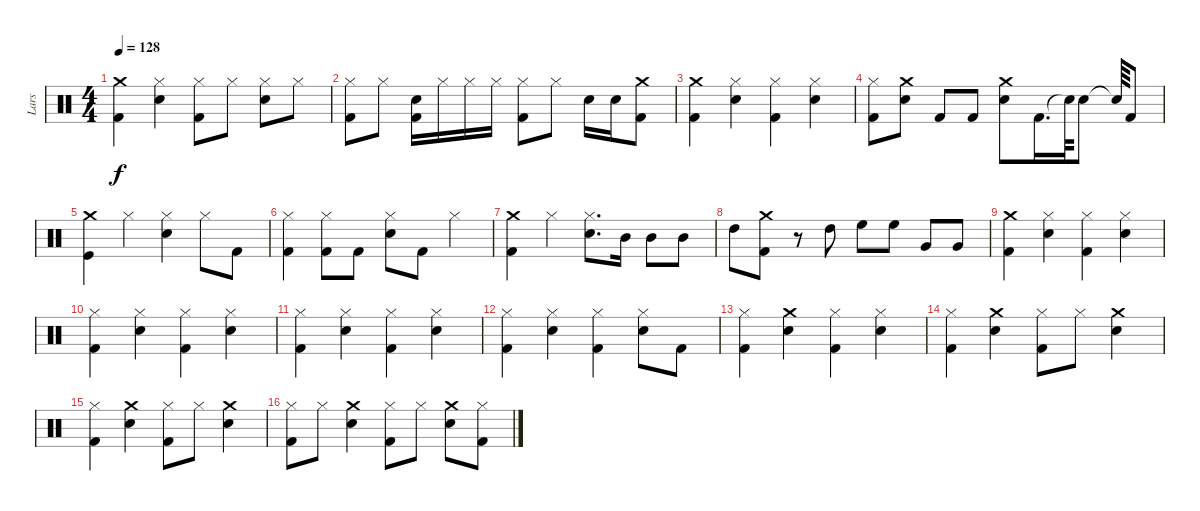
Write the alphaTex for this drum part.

\track ("Lars" "Lars") {instrument percussion}
\staff {score}
\articulation defaults
\ts (4 4)
\tempo 128
\clef neutral
\ks c
("Kick (hit) 2" "Crash medium (hit)").4{dy f} ("Snare (hit) 2" "Hi-Hat (closed)").4 ("Kick (hit) 2" "Hi-Hat (closed)").8 "Hi-Hat (closed)".8 ("Snare (hit) 2" "Hi-Hat (closed)").8 "Hi-Hat (closed)".8 |
("Hi-Hat (closed)" "Kick (hit) 2").8 "Hi-Hat (closed)".8 ("Snare (hit) 2" "Kick (hit) 2").16 "Hi-Hat (closed)".16 "Hi-Hat (closed)".16 "Hi-Hat (closed)".16 ("Hi-Hat (closed)" "Kick (hit) 2").8 "Hi-Hat (closed)".8 "Snare (hit) 2".16 "Snare (hit) 2".16 ("Crash medium (hit)" "Kick (hit) 2").8 |
("Kick (hit) 2" "Crash medium (hit)").4 ("Hi-Hat (closed)" "Snare (hit) 2").4 ("Hi-Hat (closed)" "Kick (hit) 2").4 ("Snare (hit) 2" "Hi-Hat (closed)").4 |
("Hi-Hat (closed)" "Kick (hit) 2").8 ("Snare (hit) 2" "Crash medium (hit)").8 "Kick (hit) 2".8 "Kick (hit) 2".8 ("Crash medium (hit)" "Snare (hit) 2").8 "Kick (hit) 2".16{d} "Snare (hit)"{t}.64 "Snare (hit) 2".8 "Snare (hit)"{t}.64 "Kick (hit) 2".8 |
("Kick (hit)" "Crash medium (hit)").4 "Hi-Hat (closed)".4 ("Snare (hit) 2" "Hi-Hat (closed)").4 "Hi-Hat (closed)".8 "Kick (hit) 2".8 |
("Hi-Hat (closed)" "Kick (hit) 2").4 ("Hi-Hat (closed)" "Kick (hit) 2").8 "Kick (hit) 2".8 ("Snare (hit) 2" "Hi-Hat (closed)").8 "Kick (hit) 2".8 "Hi-Hat (closed)".4 |
("Kick (hit) 2" "Crash medium (hit)").4 "Hi-Hat (closed)".4 ("Snare (hit) 2" "Hi-Hat (closed)").8{d} "Mid Tom (hit)".16 "Mid Tom (hit)".8 "Mid Tom (hit)".8 |
"High Tom (hit)".8 ("Crash medium (hit)" "Kick (hit) 2").8 r.8 "High Tom (hit)".8 "High Floor Tom (hit)".8 "High Floor Tom (hit)".8 "Very Low Tom (hit)".8 "Very Low Tom (hit)".8 |
("Kick (hit) 2" "Crash medium (hit)").4 ("Hi-Hat (closed)" "Snare (hit) 2").4 ("Hi-Hat (closed)" "Kick (hit) 2").4 ("Snare (hit) 2" "Hi-Hat (closed)").4 |
("Hi-Hat (closed)" "Kick (hit) 2").4 ("Snare (hit) 2" "Hi-Hat (closed)").4 ("Kick (hit) 2" "Hi-Hat (closed)").4 ("Snare (hit) 2" "Hi-Hat (closed)").4 |
("Hi-Hat (closed)" "Kick (hit) 2").4 ("Snare (hit) 2" "Hi-Hat (closed)").4 ("Kick (hit) 2" "Hi-Hat (closed)").4 ("Snare (hit) 2" "Hi-Hat (closed)").4 |
("Kick (hit) 2" "Hi-Hat (closed)").4 ("Snare (hit) 2" "Hi-Hat (closed)").4 ("Kick (hit) 2" "Hi-Hat (closed)").4 ("Snare (hit) 2" "Hi-Hat (closed)").8 "Kick (hit) 2".8 |
("Kick (hit) 2" "Hi-Hat (closed)").4 ("Crash medium (hit)" "Snare (hit) 2").4 ("Kick (hit) 2" "Hi-Hat (closed)").4 ("Snare (hit) 2" "Hi-Hat (closed)").4 |
("Hi-Hat (closed)" "Kick (hit) 2").4 ("Crash medium (hit)" "Snare (hit) 2").4 ("Hi-Hat (closed)" "Kick (hit) 2").8 "Hi-Hat (closed)".8 ("Crash medium (hit)" "Snare (hit) 2").4 |
("Kick (hit) 2" "Hi-Hat (closed)").4 ("Crash medium (hit)" "Snare (hit) 2").4 ("Kick (hit) 2" "Hi-Hat (closed)").8 "Hi-Hat (closed)".8 ("Crash medium (hit)" "Snare (hit) 2").4 |
("Hi-Hat (closed)" "Kick (hit) 2").8 "Hi-Hat (closed)".8 ("Crash medium (hit)" "Snare (hit) 2").4 ("Hi-Hat (closed)" "Kick (hit) 2").8 "Hi-Hat (closed)".8 ("Crash medium (hit)" "Snare (hit) 2").8 ("Kick (hit) 2" "Hi-Hat (closed)").8
